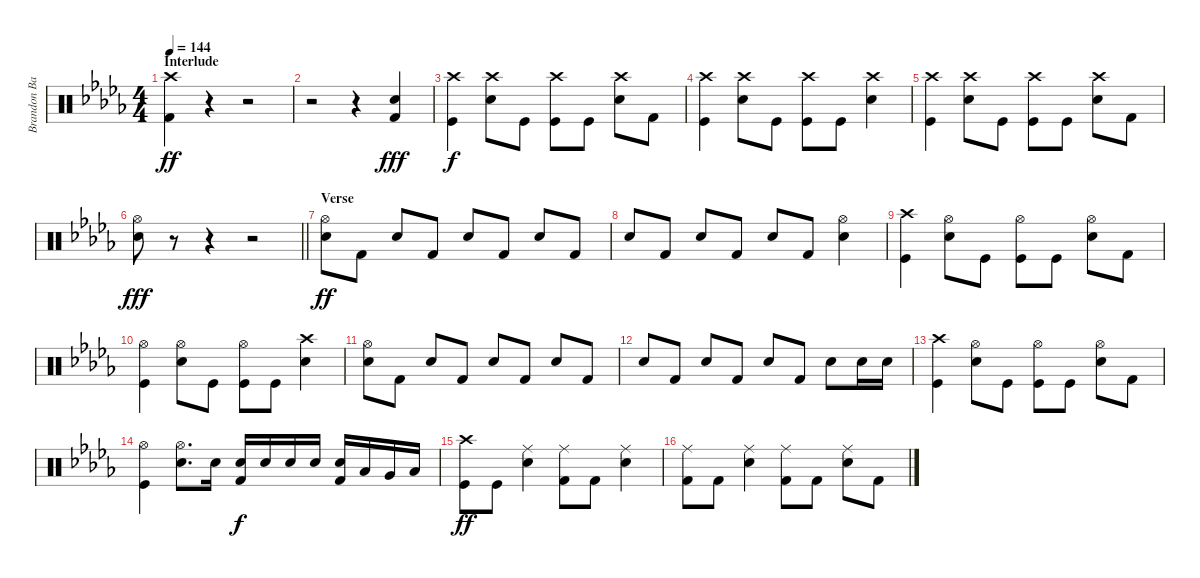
\track ("Brandon Barnes - Drums" "Brandon Ba") {instrument percussion}
\staff {score}
\articulation defaults
\ts (4 4)
\section ("" "Interlude")
\tempo 144
\clef neutral
\ks db
("Crash high (hit)" "Kick (hit) 2").4{dy ff} r.4 r.2 |
r.2 r.4 ("Snare (hit) 2" "Kick (hit) 2").4{dy fff} |
("Kick (hit)" "Crash high (hit)").4{dy f} ("Snare (hit) 2" "Crash high (hit)").8 "Kick (hit)".8 ("Kick (hit)" "Crash high (hit)").8 "Kick (hit)".8 ("Snare (hit) 2" "Crash high (hit)").8 "Kick (hit) 2".8 |
("Kick (hit)" "Crash high (hit)").4 ("Snare (hit) 2" "Crash high (hit)").8 "Kick (hit)".8 ("Kick (hit)" "Crash high (hit)").8 "Kick (hit)".8 ("Snare (hit) 2" "Crash high (hit)").4 |
("Kick (hit)" "Crash high (hit)").4 ("Snare (hit) 2" "Crash high (hit)").8 "Kick (hit)".8 ("Kick (hit)" "Crash high (hit)").8 "Kick (hit)".8 ("Snare (hit) 2" "Crash high (hit)").8 "Kick (hit) 2".8 |
\barLineRight lightlight
("Snare (hit) 2" "Hi-Hat (open)").8{dy fff} r.8 r.4 r.2 |
\section ("" "Verse")
("Hi-Hat (open)" "Snare (hit) 2").8{dy ff} "Kick (hit) 2".8 "Snare (hit) 2".8 "Kick (hit) 2".8 "Snare (hit) 2".8 "Kick (hit) 2".8 "Snare (hit) 2".8 "Kick (hit) 2".8 |
"Snare (hit) 2".8 "Kick (hit) 2".8 "Snare (hit) 2".8 "Kick (hit) 2".8 "Snare (hit) 2".8 "Kick (hit) 2".8 ("Snare (hit) 2" "Hi-Hat (open)").4 |
("Kick (hit)" "Crash high (hit)").4 ("Snare (hit) 2" "Hi-Hat (open)").8 "Kick (hit)".8 ("Kick (hit)" "Hi-Hat (open)").8 "Kick (hit)".8 ("Snare (hit) 2" "Hi-Hat (open)").8 "Kick (hit) 2".8 |
("Kick (hit)" "Hi-Hat (open)").4 ("Snare (hit) 2" "Hi-Hat (open)").8 "Kick (hit)".8 ("Kick (hit)" "Hi-Hat (open)").8 "Kick (hit)".8 ("Snare (hit) 2" "Crash high (hit)").4 |
("Snare (hit) 2" "Hi-Hat (open)").8 "Kick (hit) 2".8 "Snare (hit) 2".8 "Kick (hit) 2".8 "Snare (hit) 2".8 "Kick (hit) 2".8 "Snare (hit) 2".8 "Kick (hit) 2".8 |
"Snare (hit) 2".8 "Kick (hit) 2".8 "Snare (hit) 2".8 "Kick (hit) 2".8 "Snare (hit) 2".8 "Kick (hit) 2".8 "Snare (hit) 2".8 "Snare (hit) 2".16 "Snare (hit) 2".16 |
("Kick (hit)" "Crash high (hit)").4 ("Snare (hit) 2" "Hi-Hat (open)").8 "Kick (hit)".8 ("Kick (hit)" "Hi-Hat (open)").8 "Kick (hit)".8 ("Snare (hit) 2" "Hi-Hat (open)").8 "Kick (hit) 2".8 |
("Kick (hit)" "Hi-Hat (open)").4 ("Snare (hit) 2" "Hi-Hat (open)").8{d} "Snare (hit) 2".16 ("Snare (hit) 2" "Kick (hit) 2").16{dy f} "Snare (hit) 2".16 "Snare (hit) 2".16 "Snare (hit) 2".16 ("Snare (hit) 2" "Kick (hit) 2").16 "Low Tom (hit)".16 "Very Low Tom (hit)".16 "Low Floor Tom (hit)".16 |
("Crash high (hit)" "Kick (hit)").8{dy ff} "Kick (hit)".8 ("Snare (hit) 2" "Ride (middle)").4 ("Kick (hit) 2" "Ride (middle)").8 "Kick (hit) 2".8 ("Snare (hit) 2" "Ride (middle)").4 |
("Kick (hit) 2" "Ride (middle)").8 "Kick (hit) 2".8 ("Snare (hit) 2" "Ride (middle)").4 ("Kick (hit) 2" "Ride (middle)").8 "Kick (hit) 2".8 ("Snare (hit) 2" "Ride (middle)").8 "Kick (hit) 2".8
